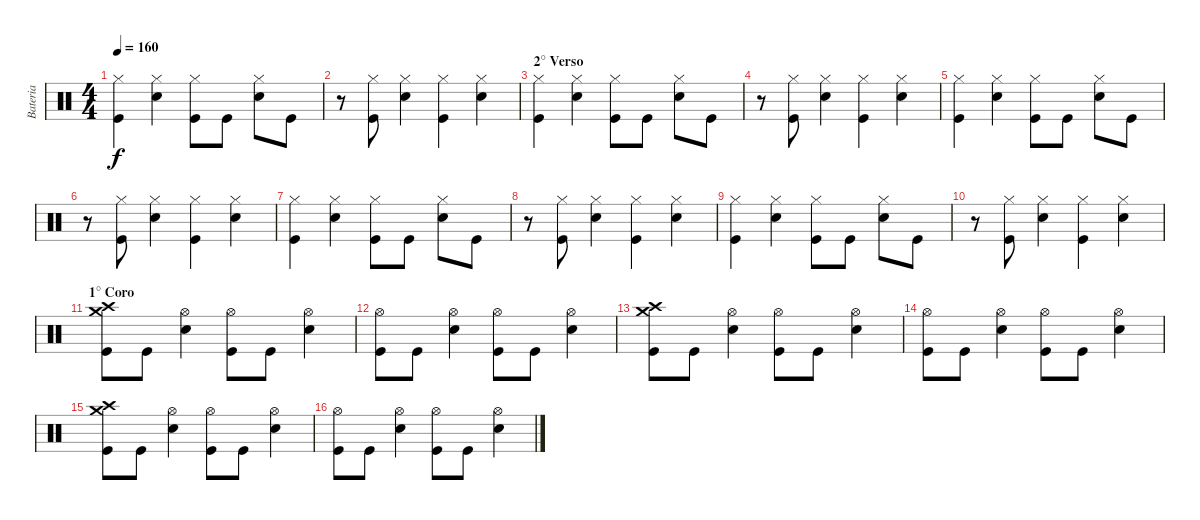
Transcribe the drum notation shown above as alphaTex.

\track ("Bateria" "Bateria") {instrument percussion}
\staff {score}
\articulation defaults
\ts (4 4)
\tempo 160
\clef neutral
\ks c
("Hi-Hat (closed)" "Kick (hit)").4{dy f} ("Hi-Hat (closed)" "Snare (hit) 2").4 ("Hi-Hat (closed)" "Kick (hit)").8 "Kick (hit)".8 ("Hi-Hat (closed)" "Snare (hit) 2").8 "Kick (hit)".8 |
r.8 ("Hi-Hat (closed)" "Kick (hit)").8 ("Hi-Hat (closed)" "Snare (hit) 2").4 ("Hi-Hat (closed)" "Kick (hit)").4 ("Hi-Hat (closed)" "Snare (hit) 2").4 |
\section ("" "2° Verso")
("Hi-Hat (closed)" "Kick (hit)").4 ("Hi-Hat (closed)" "Snare (hit) 2").4 ("Hi-Hat (closed)" "Kick (hit)").8 "Kick (hit)".8 ("Hi-Hat (closed)" "Snare (hit) 2").8 "Kick (hit)".8 |
r.8 ("Hi-Hat (closed)" "Kick (hit)").8 ("Hi-Hat (closed)" "Snare (hit) 2").4 ("Hi-Hat (closed)" "Kick (hit)").4 ("Hi-Hat (closed)" "Snare (hit) 2").4 |
("Hi-Hat (closed)" "Kick (hit)").4 ("Hi-Hat (closed)" "Snare (hit) 2").4 ("Hi-Hat (closed)" "Kick (hit)").8 "Kick (hit)".8 ("Hi-Hat (closed)" "Snare (hit) 2").8 "Kick (hit)".8 |
r.8 ("Hi-Hat (closed)" "Kick (hit)").8 ("Hi-Hat (closed)" "Snare (hit) 2").4 ("Hi-Hat (closed)" "Kick (hit)").4 ("Hi-Hat (closed)" "Snare (hit) 2").4 |
("Hi-Hat (closed)" "Kick (hit)").4 ("Hi-Hat (closed)" "Snare (hit) 2").4 ("Hi-Hat (closed)" "Kick (hit)").8 "Kick (hit)".8 ("Hi-Hat (closed)" "Snare (hit) 2").8 "Kick (hit)".8 |
r.8 ("Hi-Hat (closed)" "Kick (hit)").8 ("Hi-Hat (closed)" "Snare (hit) 2").4 ("Hi-Hat (closed)" "Kick (hit)").4 ("Hi-Hat (closed)" "Snare (hit) 2").4 |
("Hi-Hat (closed)" "Kick (hit)").4 ("Hi-Hat (closed)" "Snare (hit) 2").4 ("Hi-Hat (closed)" "Kick (hit)").8 "Kick (hit)".8 ("Hi-Hat (closed)" "Snare (hit) 2").8 "Kick (hit)".8 |
r.8 ("Hi-Hat (closed)" "Kick (hit)").8 ("Hi-Hat (closed)" "Snare (hit) 2").4 ("Hi-Hat (closed)" "Kick (hit)").4 ("Hi-Hat (closed)" "Snare (hit) 2").4 |
\section ("" "1° Coro")
("Crash medium (hit)" "Crash high (hit)" "Kick (hit)").8 "Kick (hit)".8 ("Hi-Hat (open)" "Snare (hit) 2").4 ("Hi-Hat (open)" "Kick (hit)").8 "Kick (hit)".8 ("Hi-Hat (open)" "Snare (hit) 2").4 |
("Hi-Hat (open)" "Kick (hit)").8 "Kick (hit)".8 ("Hi-Hat (open)" "Snare (hit) 2").4 ("Hi-Hat (open)" "Kick (hit)").8 "Kick (hit)".8 ("Hi-Hat (open)" "Snare (hit) 2").4 |
("Crash medium (hit)" "Crash high (hit)" "Kick (hit)").8 "Kick (hit)".8 ("Hi-Hat (open)" "Snare (hit) 2").4 ("Hi-Hat (open)" "Kick (hit)").8 "Kick (hit)".8 ("Hi-Hat (open)" "Snare (hit) 2").4 |
("Hi-Hat (open)" "Kick (hit)").8 "Kick (hit)".8 ("Hi-Hat (open)" "Snare (hit) 2").4 ("Hi-Hat (open)" "Kick (hit)").8 "Kick (hit)".8 ("Hi-Hat (open)" "Snare (hit) 2").4 |
("Crash medium (hit)" "Crash high (hit)" "Kick (hit)").8 "Kick (hit)".8 ("Hi-Hat (open)" "Snare (hit) 2").4 ("Hi-Hat (open)" "Kick (hit)").8 "Kick (hit)".8 ("Hi-Hat (open)" "Snare (hit) 2").4 |
("Hi-Hat (open)" "Kick (hit)").8 "Kick (hit)".8 ("Hi-Hat (open)" "Snare (hit) 2").4 ("Hi-Hat (open)" "Kick (hit)").8 "Kick (hit)".8 ("Hi-Hat (open)" "Snare (hit) 2").4
